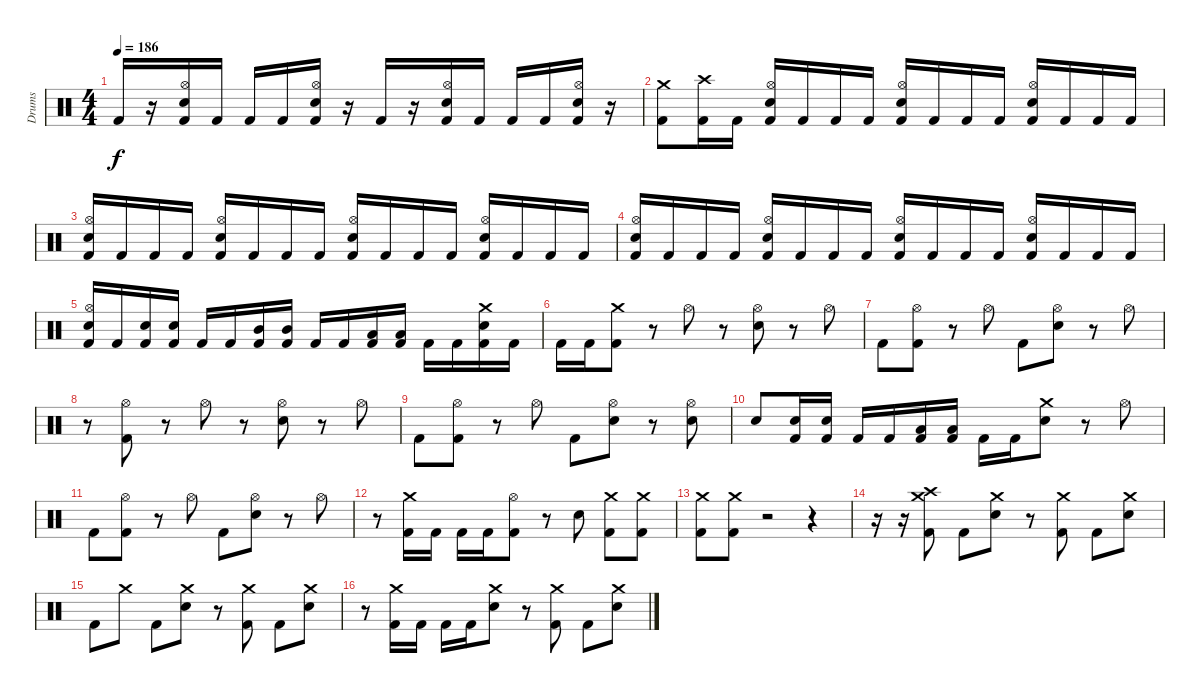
\track ("Drums" "Drums") {instrument percussion bank 177}
\staff {score}
\articulation defaults
\ts (4 4)
\tempo 186
\clef neutral
\ks c "Kick (hit) 2".16{dy f}
r.16 ("Hi-Hat (open)" "Snare (hit) 2" "Kick (hit) 2").16 "Kick (hit) 2".16 "Kick (hit) 2".16 "Kick (hit) 2".16 ("Hi-Hat (open)" "Snare (hit) 2" "Kick (hit) 2").16 r.16 "Kick (hit) 2".16 r.16 ("Hi-Hat (open)" "Snare (hit) 2" "Kick (hit) 2").16 "Kick (hit) 2".16 "Kick (hit) 2".16 "Kick (hit) 2".16 ("Hi-Hat (open)" "Snare (hit) 2" "Kick (hit) 2").16 r.16 |
("Crash medium (hit)" "Kick (hit) 2").8 ("Crash high (hit)" "Kick (hit) 2").16 "Kick (hit) 2".16 ("Hi-Hat (open)" "Snare (hit) 2" "Kick (hit) 2").16 "Kick (hit) 2".16 "Kick (hit) 2".16 "Kick (hit) 2".16 ("Hi-Hat (open)" "Snare (hit) 2" "Kick (hit) 2").16 "Kick (hit) 2".16 "Kick (hit) 2".16 "Kick (hit) 2".16 ("Hi-Hat (open)" "Snare (hit) 2" "Kick (hit) 2").16 "Kick (hit) 2".16 "Kick (hit) 2".16 "Kick (hit) 2".16 |
("Hi-Hat (open)" "Snare (hit) 2" "Kick (hit) 2").16 "Kick (hit) 2".16 "Kick (hit) 2".16 "Kick (hit) 2".16 ("Hi-Hat (open)" "Snare (hit) 2" "Kick (hit) 2").16 "Kick (hit) 2".16 "Kick (hit) 2".16 "Kick (hit) 2".16 ("Hi-Hat (open)" "Snare (hit) 2" "Kick (hit) 2").16 "Kick (hit) 2".16 "Kick (hit) 2".16 "Kick (hit) 2".16 ("Hi-Hat (open)" "Snare (hit) 2" "Kick (hit) 2").16 "Kick (hit) 2".16 "Kick (hit) 2".16 "Kick (hit) 2".16 |
("Hi-Hat (open)" "Snare (hit) 2" "Kick (hit) 2").16 "Kick (hit) 2".16 "Kick (hit) 2".16 "Kick (hit) 2".16 ("Hi-Hat (open)" "Snare (hit) 2" "Kick (hit) 2").16 "Kick (hit) 2".16 "Kick (hit) 2".16 "Kick (hit) 2".16 ("Hi-Hat (open)" "Snare (hit) 2" "Kick (hit) 2").16 "Kick (hit) 2".16 "Kick (hit) 2".16 "Kick (hit) 2".16 ("Hi-Hat (open)" "Snare (hit) 2" "Kick (hit) 2").16 "Kick (hit) 2".16 "Kick (hit) 2".16 "Kick (hit) 2".16 |
("Hi-Hat (open)" "Snare (hit) 2" "Kick (hit) 2").16 "Kick (hit) 2".16 ("Snare (hit) 2" "Kick (hit) 2").16 ("Snare (hit) 2" "Kick (hit) 2").16 "Kick (hit) 2".16 "Kick (hit) 2".16 ("Mid Tom (hit)" "Kick (hit) 2").16 ("Mid Tom (hit)" "Kick (hit) 2").16 "Kick (hit) 2".16 "Kick (hit) 2".16 ("Low Tom (hit)" "Kick (hit) 2").16 ("Low Tom (hit)" "Kick (hit) 2").16 "Kick (hit) 2".16 "Kick (hit) 2".16 ("Crash medium (hit)" "Snare (hit) 2" "Kick (hit) 2").16 "Kick (hit) 2".16 |
"Kick (hit) 2".16 "Kick (hit) 2".16 ("Crash medium (hit)" "Kick (hit) 2").8 r.8 "Hi-Hat (open)".8 r.8 ("Hi-Hat (open)" "Snare (hit) 2").8 r.8 "Hi-Hat (open)".8 |
"Kick (hit) 2".8 ("Hi-Hat (open)" "Kick (hit) 2").8 r.8 "Hi-Hat (open)".8 "Kick (hit) 2".8 ("Hi-Hat (open)" "Snare (hit) 2").8 r.8 "Hi-Hat (open)".8 |
r.8 ("Hi-Hat (open)" "Kick (hit) 2").8 r.8 "Hi-Hat (open)".8 r.8 ("Hi-Hat (open)" "Snare (hit) 2").8 r.8 "Hi-Hat (open)".8 |
"Kick (hit) 2".8 ("Hi-Hat (open)" "Kick (hit) 2").8 r.8 "Hi-Hat (open)".8 "Kick (hit) 2".8 ("Hi-Hat (open)" "Snare (hit) 2").8 r.8 ("Hi-Hat (open)" "Snare (hit) 2").8 |
"Snare (hit) 2".8 ("Snare (hit) 2" "Kick (hit) 2").16 ("Snare (hit) 2" "Kick (hit) 2").16 "Kick (hit) 2".16 "Kick (hit) 2".16 ("Low Tom (hit)" "Kick (hit) 2").16 ("Low Tom (hit)" "Kick (hit) 2").16 "Kick (hit) 2".16 "Kick (hit) 2".16 ("Crash medium (hit)" "Snare (hit) 2").8 r.8 "Hi-Hat (open)".8 |
"Kick (hit) 2".8 ("Hi-Hat (open)" "Kick (hit) 2").8 r.8 "Hi-Hat (open)".8 "Kick (hit) 2".8 ("Hi-Hat (open)" "Snare (hit) 2").8 r.8 "Hi-Hat (open)".8 |
r.8 ("Crash medium (hit)" "Kick (hit) 2").16 "Kick (hit) 2".16 "Kick (hit) 2".16 "Kick (hit) 2".16 ("Hi-Hat (open)" "Kick (hit) 2").8 r.8 "Snare (hit) 2".8 ("Crash medium (hit)" "Kick (hit) 2").8 ("Crash medium (hit)" "Kick (hit) 2").8 |
("Crash medium (hit)" "Kick (hit) 2").8 ("Crash medium (hit)" "Kick (hit) 2").8 r.2 r.4 |
r.16 r.16 ("Crash medium (hit)" "Crash high (hit)" "Kick (hit) 2").8 "Kick (hit) 2".8 ("Crash medium (hit)" "Snare (hit) 2").8 r.8 ("Crash medium (hit)" "Kick (hit) 2").8 "Kick (hit) 2".8 ("Crash medium (hit)" "Snare (hit) 2").8 |
"Kick (hit) 2".8 "Crash medium (hit)".8 "Kick (hit) 2".8 ("Crash medium (hit)" "Snare (hit) 2").8 r.8 ("Crash medium (hit)" "Kick (hit) 2").8 "Kick (hit) 2".8 ("Crash medium (hit)" "Snare (hit) 2").8 |
r.8 ("Crash medium (hit)" "Kick (hit) 2").16 "Kick (hit) 2".16 "Kick (hit) 2".16 "Kick (hit) 2".16 ("Crash medium (hit)" "Snare (hit) 2").8 r.8 ("Crash medium (hit)" "Kick (hit) 2").8 "Kick (hit) 2".8 ("Crash medium (hit)" "Snare (hit) 2").8
